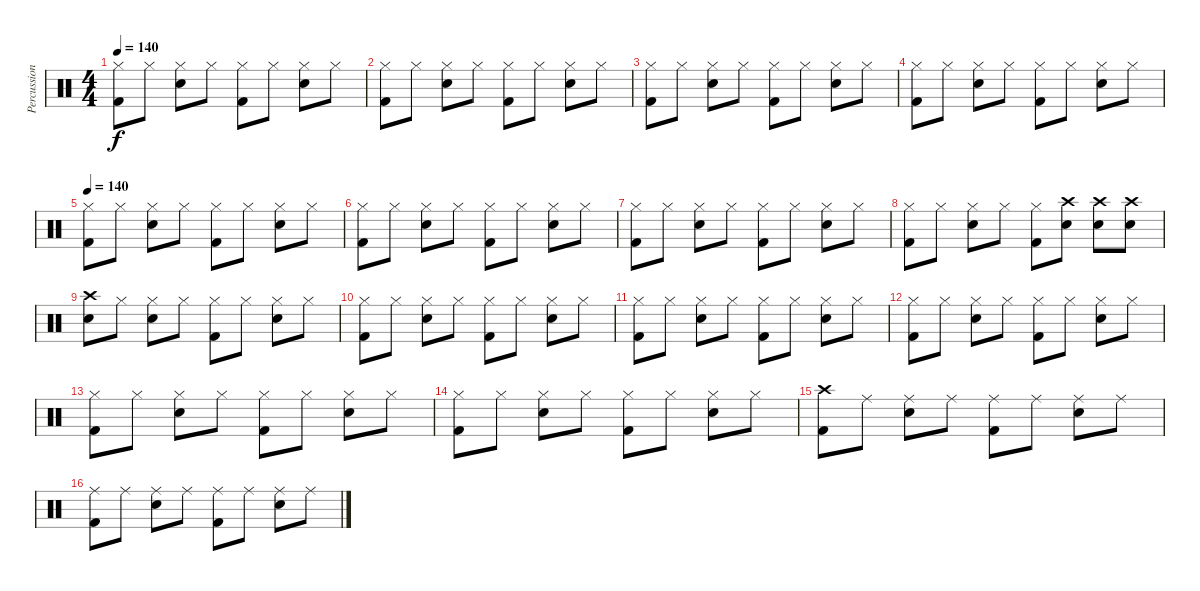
\track ("Percussion" "Percussion") {instrument percussion}
\staff {score}
\articulation defaults
\ts (4 4)
\tempo 140
\clef neutral
\ks c
("Hi-Hat (closed)" "Kick (hit) 2").8{dy f} "Hi-Hat (closed)".8 ("Hi-Hat (closed)" "Snare (hit) 2").8 "Hi-Hat (closed)".8 ("Hi-Hat (closed)" "Kick (hit) 2").8 "Hi-Hat (closed)".8 ("Hi-Hat (closed)" "Snare (hit) 2").8 "Hi-Hat (closed)".8 |
("Hi-Hat (closed)" "Kick (hit) 2").8 "Hi-Hat (closed)".8 ("Hi-Hat (closed)" "Snare (hit) 2").8 "Hi-Hat (closed)".8 ("Hi-Hat (closed)" "Kick (hit) 2").8 "Hi-Hat (closed)".8 ("Hi-Hat (closed)" "Snare (hit) 2").8 "Hi-Hat (closed)".8 |
("Hi-Hat (closed)" "Kick (hit) 2").8 "Hi-Hat (closed)".8 ("Hi-Hat (closed)" "Snare (hit) 2").8 "Hi-Hat (closed)".8 ("Hi-Hat (closed)" "Kick (hit) 2").8 "Hi-Hat (closed)".8 ("Hi-Hat (closed)" "Snare (hit) 2").8 "Hi-Hat (closed)".8 |
("Hi-Hat (closed)" "Kick (hit) 2").8 "Hi-Hat (closed)".8 ("Hi-Hat (closed)" "Snare (hit) 2").8 "Hi-Hat (closed)".8 ("Hi-Hat (closed)" "Kick (hit) 2").8 "Hi-Hat (closed)".8 ("Hi-Hat (closed)" "Snare (hit) 2").8 "Hi-Hat (closed)".8 |
\tempo 140
("Hi-Hat (closed)" "Kick (hit) 2").8 "Hi-Hat (closed)".8 ("Hi-Hat (closed)" "Snare (hit) 2").8 "Hi-Hat (closed)".8 ("Hi-Hat (closed)" "Kick (hit) 2").8 "Hi-Hat (closed)".8 ("Hi-Hat (closed)" "Snare (hit) 2").8 "Hi-Hat (closed)".8 |
("Hi-Hat (closed)" "Kick (hit) 2").8 "Hi-Hat (closed)".8 ("Hi-Hat (closed)" "Snare (hit) 2").8 "Hi-Hat (closed)".8 ("Hi-Hat (closed)" "Kick (hit) 2").8 "Hi-Hat (closed)".8 ("Hi-Hat (closed)" "Snare (hit) 2").8 "Hi-Hat (closed)".8 |
("Hi-Hat (closed)" "Kick (hit) 2").8 "Hi-Hat (closed)".8 ("Hi-Hat (closed)" "Snare (hit) 2").8 "Hi-Hat (closed)".8 ("Hi-Hat (closed)" "Kick (hit) 2").8 "Hi-Hat (closed)".8 ("Hi-Hat (closed)" "Snare (hit) 2").8 "Hi-Hat (closed)".8 |
("Hi-Hat (closed)" "Kick (hit) 2").8 "Hi-Hat (closed)".8 ("Hi-Hat (closed)" "Snare (hit) 2").8 "Hi-Hat (closed)".8 ("Hi-Hat (closed)" "Kick (hit) 2").8 ("Crash high (hit)" "Snare (hit) 2").8 ("Crash high (hit)" "Snare (hit) 2").8 ("Crash high (hit)" "Snare (hit) 2").8 |
("Crash high (hit)" "Snare (hit) 2").8 "Hi-Hat (closed)".8 ("Hi-Hat (closed)" "Snare (hit) 2").8 "Hi-Hat (closed)".8 ("Hi-Hat (closed)" "Kick (hit) 2").8 "Hi-Hat (closed)".8 ("Hi-Hat (closed)" "Snare (hit) 2").8 "Hi-Hat (closed)".8 |
("Hi-Hat (closed)" "Kick (hit) 2").8 "Hi-Hat (closed)".8 ("Hi-Hat (closed)" "Snare (hit) 2").8 "Hi-Hat (closed)".8 ("Hi-Hat (closed)" "Kick (hit) 2").8 "Hi-Hat (closed)".8 ("Hi-Hat (closed)" "Snare (hit) 2").8 "Hi-Hat (closed)".8 |
("Hi-Hat (closed)" "Kick (hit) 2").8 "Hi-Hat (closed)".8 ("Hi-Hat (closed)" "Snare (hit) 2").8 "Hi-Hat (closed)".8 ("Hi-Hat (closed)" "Kick (hit) 2").8 "Hi-Hat (closed)".8 ("Hi-Hat (closed)" "Snare (hit) 2").8 "Hi-Hat (closed)".8 |
("Hi-Hat (closed)" "Kick (hit) 2").8 "Hi-Hat (closed)".8 ("Hi-Hat (closed)" "Snare (hit) 2").8 "Hi-Hat (closed)".8 ("Hi-Hat (closed)" "Kick (hit) 2").8 "Hi-Hat (closed)".8 ("Hi-Hat (closed)" "Snare (hit) 2").8 "Hi-Hat (closed)".8 |
("Hi-Hat (closed)" "Kick (hit) 2").8 "Hi-Hat (closed)".8 ("Hi-Hat (closed)" "Snare (hit) 2").8 "Hi-Hat (closed)".8 ("Hi-Hat (closed)" "Kick (hit) 2").8 "Hi-Hat (closed)".8 ("Hi-Hat (closed)" "Snare (hit) 2").8 "Hi-Hat (closed)".8 |
("Hi-Hat (closed)" "Kick (hit) 2").8 "Hi-Hat (closed)".8 ("Hi-Hat (closed)" "Snare (hit) 2").8 "Hi-Hat (closed)".8 ("Hi-Hat (closed)" "Kick (hit) 2").8 "Hi-Hat (closed)".8 ("Hi-Hat (closed)" "Snare (hit) 2").8 "Hi-Hat (closed)".8 |
("Crash high (hit)" "Kick (hit) 2").8 "Ride (middle)".8 ("Ride (middle)" "Snare (hit) 2").8 "Ride (middle)".8 ("Ride (middle)" "Kick (hit) 2").8 "Ride (middle)".8 ("Ride (middle)" "Snare (hit) 2").8 "Ride (middle)".8 |
("Ride (middle)" "Kick (hit) 2").8 "Ride (middle)".8 ("Ride (middle)" "Snare (hit) 2").8 "Ride (middle)".8 ("Ride (middle)" "Kick (hit) 2").8 "Ride (middle)".8 ("Ride (middle)" "Snare (hit) 2").8 "Ride (middle)".8
